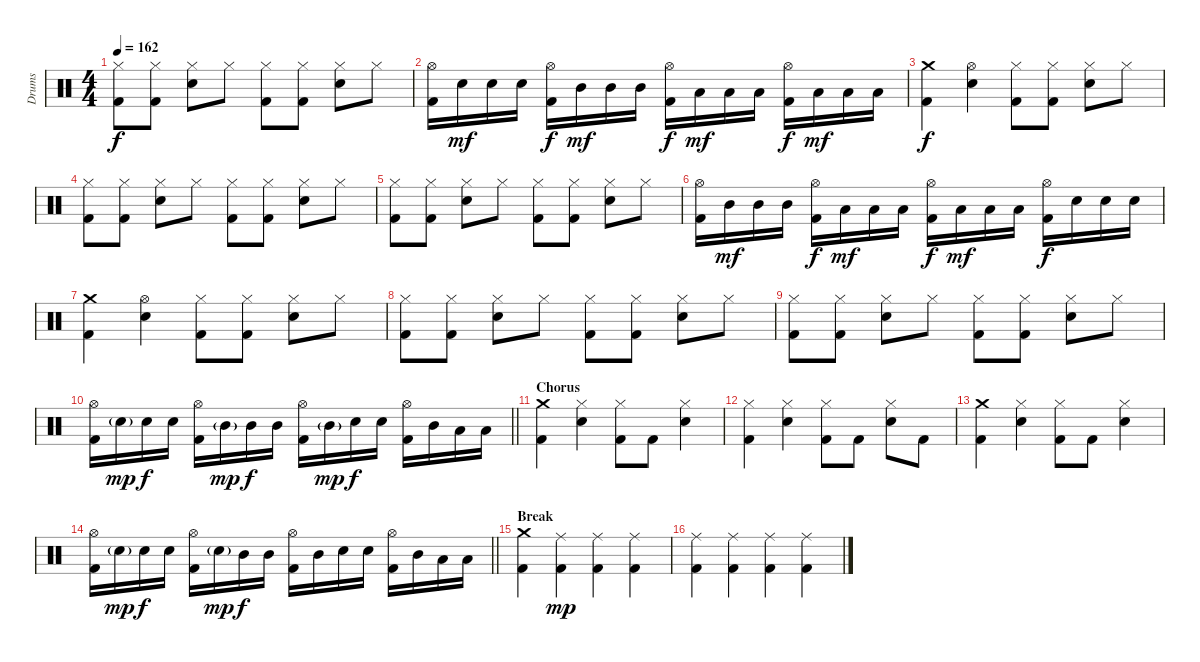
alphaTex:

\track ("Drums" "Drums") {instrument percussion}
\staff {score}
\articulation defaults
\ts (4 4)
\tempo 162
\clef neutral
\ks c
("Hi-Hat (closed)" "Kick (hit) 2").8{dy f} ("Hi-Hat (closed)" "Kick (hit) 2").8 ("Hi-Hat (closed)" "Electric Snare (hit)").8 "Hi-Hat (closed)".8 ("Hi-Hat (closed)" "Kick (hit) 2").8 ("Hi-Hat (closed)" "Kick (hit) 2").8 ("Hi-Hat (closed)" "Electric Snare (hit)").8 "Hi-Hat (closed)".8 |
("Hi-Hat (open)" "Kick (hit) 2").16 "Electric Snare (hit)".16{dy mf} "Electric Snare (hit)".16 "Electric Snare (hit)".16 ("Hi-Hat (open)" "Kick (hit) 2").16{dy f} "Mid Tom (hit)".16{dy mf} "Mid Tom (hit)".16 "Mid Tom (hit)".16 ("Hi-Hat (open)" "Kick (hit) 2").16{dy f} "Low Tom (hit)".16{dy mf} "Low Tom (hit)".16 "Low Tom (hit)".16 ("Hi-Hat (open)" "Kick (hit) 2").16{dy f} "Low Floor Tom (hit)".16{dy mf} "Low Floor Tom (hit)".16 "Low Floor Tom (hit)".16 |
("Crash medium (hit)" "Kick (hit) 2").4{dy f} ("Hi-Hat (open)" "Electric Snare (hit)").4 ("Hi-Hat (closed)" "Kick (hit) 2").8 ("Hi-Hat (closed)" "Kick (hit) 2").8 ("Hi-Hat (closed)" "Electric Snare (hit)").8 "Hi-Hat (closed)".8 |
("Hi-Hat (closed)" "Kick (hit) 2").8 ("Hi-Hat (closed)" "Kick (hit) 2").8 ("Hi-Hat (closed)" "Electric Snare (hit)").8 "Hi-Hat (closed)".8 ("Hi-Hat (closed)" "Kick (hit) 2").8 ("Hi-Hat (closed)" "Kick (hit) 2").8 ("Hi-Hat (closed)" "Electric Snare (hit)").8 "Hi-Hat (closed)".8 |
("Hi-Hat (closed)" "Kick (hit) 2").8 ("Hi-Hat (closed)" "Kick (hit) 2").8 ("Hi-Hat (closed)" "Electric Snare (hit)").8 "Hi-Hat (closed)".8 ("Hi-Hat (closed)" "Kick (hit) 2").8 ("Hi-Hat (closed)" "Kick (hit) 2").8 ("Hi-Hat (closed)" "Electric Snare (hit)").8 "Hi-Hat (closed)".8 |
("Hi-Hat (open)" "Kick (hit) 2").16 "Mid Tom (hit)".16{dy mf} "Mid Tom (hit)".16 "Mid Tom (hit)".16 ("Hi-Hat (open)" "Kick (hit) 2").16{dy f} "Low Tom (hit)".16{dy mf} "Low Tom (hit)".16 "Low Tom (hit)".16 ("Hi-Hat (open)" "Kick (hit) 2").16{dy f} "Low Floor Tom (hit)".16{dy mf} "Low Floor Tom (hit)".16 "Low Floor Tom (hit)".16 ("Hi-Hat (open)" "Kick (hit) 2").16{dy f} "Electric Snare (hit)".16 "Electric Snare (hit)".16 "Electric Snare (hit)".16 |
("Crash medium (hit)" "Kick (hit) 2").4 ("Hi-Hat (open)" "Electric Snare (hit)").4 ("Hi-Hat (closed)" "Kick (hit) 2").8 ("Hi-Hat (closed)" "Kick (hit) 2").8 ("Hi-Hat (closed)" "Electric Snare (hit)").8 "Hi-Hat (closed)".8 |
("Hi-Hat (closed)" "Kick (hit) 2").8 ("Hi-Hat (closed)" "Kick (hit) 2").8 ("Hi-Hat (closed)" "Electric Snare (hit)").8 "Hi-Hat (closed)".8 ("Hi-Hat (closed)" "Kick (hit) 2").8 ("Hi-Hat (closed)" "Kick (hit) 2").8 ("Hi-Hat (closed)" "Electric Snare (hit)").8 "Hi-Hat (closed)".8 |
("Hi-Hat (closed)" "Kick (hit) 2").8 ("Hi-Hat (closed)" "Kick (hit) 2").8 ("Hi-Hat (closed)" "Electric Snare (hit)").8 "Hi-Hat (closed)".8 ("Hi-Hat (closed)" "Kick (hit) 2").8 ("Hi-Hat (closed)" "Kick (hit) 2").8 ("Hi-Hat (closed)" "Electric Snare (hit)").8 "Hi-Hat (closed)".8 |
\barLineRight lightlight
("Hi-Hat (open)" "Kick (hit) 2").16 "Electric Snare (hit)"{g}.16{dy mp} "Electric Snare (hit)".16{dy f} "Electric Snare (hit)".16 ("Hi-Hat (open)" "Kick (hit) 2").16 "Mid Tom (hit)"{g}.16{dy mp} "Mid Tom (hit)".16{dy f} "Mid Tom (hit)".16 ("Hi-Hat (open)" "Kick (hit) 2").16 "Mid Tom (hit)"{g}.16{dy mp} "Electric Snare (hit)".16{dy f} "Electric Snare (hit)".16 ("Hi-Hat (open)" "Kick (hit) 2").16 "Mid Tom (hit)".16 "Low Tom (hit)".16 "Low Floor Tom (hit)".16 |
\section ("" "Chorus")
("Crash medium (hit)" "Kick (hit) 2").4 ("Hi-Hat (closed)" "Electric Snare (hit)").4 ("Hi-Hat (closed)" "Kick (hit) 2").8 "Kick (hit) 2".8 ("Hi-Hat (closed)" "Electric Snare (hit)").4 |
("Hi-Hat (closed)" "Kick (hit) 2").4 ("Hi-Hat (closed)" "Electric Snare (hit)").4 ("Hi-Hat (closed)" "Kick (hit) 2").8 "Kick (hit) 2".8 ("Hi-Hat (closed)" "Electric Snare (hit)").8 "Kick (hit) 2".8 |
("Crash medium (hit)" "Kick (hit) 2").4 ("Hi-Hat (closed)" "Electric Snare (hit)").4 ("Hi-Hat (closed)" "Kick (hit) 2").8 "Kick (hit) 2".8 ("Hi-Hat (closed)" "Electric Snare (hit)").4 |
\barLineRight lightlight
("Hi-Hat (open)" "Kick (hit) 2").16 "Electric Snare (hit)"{g}.16{dy mp} "Electric Snare (hit)".16{dy f} "Electric Snare (hit)".16 ("Hi-Hat (open)" "Kick (hit) 2").16 "Electric Snare (hit)"{g}.16{dy mp} "Mid Tom (hit)".16{dy f} "Mid Tom (hit)".16 ("Hi-Hat (open)" "Kick (hit) 2").16 "Mid Tom (hit)".16 "Electric Snare (hit)".16 "Electric Snare (hit)".16 ("Hi-Hat (open)" "Kick (hit) 2").16 "Mid Tom (hit)".16 "Low Tom (hit)".16 "Low Floor Tom (hit)".16 |
\section ("" "Break")
("Crash medium (hit)" "Kick (hit) 2").4 ("Ride (middle)" "Kick (hit) 2").4{dy mp} ("Ride (middle)" "Kick (hit) 2").4 ("Ride (middle)" "Kick (hit) 2").4 |
("Ride (middle)" "Kick (hit) 2").4 ("Ride (middle)" "Kick (hit) 2").4 ("Ride (middle)" "Kick (hit) 2").4 ("Ride (middle)" "Kick (hit) 2").4
